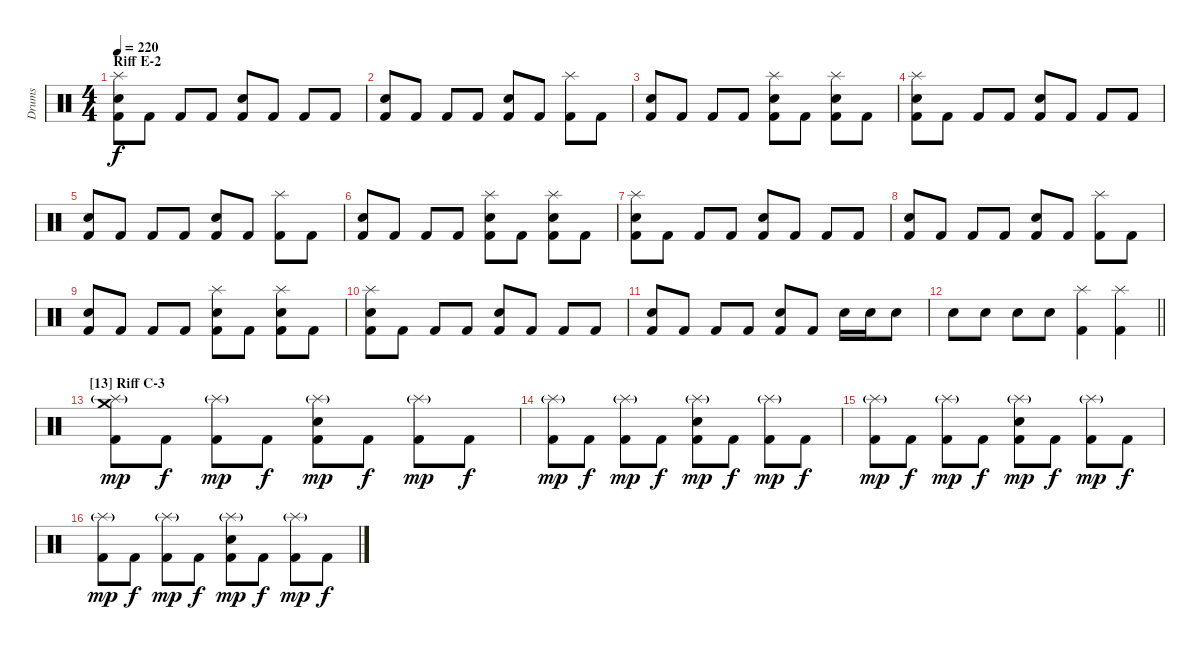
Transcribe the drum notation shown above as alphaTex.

\track ("Drums" "Drums") {instrument percussion}
\staff {score}
\articulation defaults
\ts (4 4)
\section ("" "Riff E-2")
\tempo 220
\clef neutral
\ks c
("Splash (hit)" "Electric Snare (hit)" "Kick (hit) 2").8{dy f} "Kick (hit) 2".8 "Kick (hit) 2".8 "Kick (hit) 2".8 ("Electric Snare (hit)" "Kick (hit) 2").8 "Kick (hit) 2".8 "Kick (hit) 2".8 "Kick (hit) 2".8 |
("Electric Snare (hit)" "Kick (hit) 2").8 "Kick (hit) 2".8 "Kick (hit) 2".8 "Kick (hit) 2".8 ("Electric Snare (hit)" "Kick (hit) 2").8 "Kick (hit) 2".8 ("Splash (hit)" "Kick (hit) 2").8 "Kick (hit) 2".8 |
("Electric Snare (hit)" "Kick (hit) 2").8 "Kick (hit) 2".8 "Kick (hit) 2".8 "Kick (hit) 2".8 ("Splash (hit)" "Electric Snare (hit)" "Kick (hit) 2").8 "Kick (hit) 2".8 ("Splash (hit)" "Electric Snare (hit)" "Kick (hit) 2").8 "Kick (hit) 2".8 |
("Splash (hit)" "Electric Snare (hit)" "Kick (hit) 2").8 "Kick (hit) 2".8 "Kick (hit) 2".8 "Kick (hit) 2".8 ("Electric Snare (hit)" "Kick (hit) 2").8 "Kick (hit) 2".8 "Kick (hit) 2".8 "Kick (hit) 2".8 |
("Electric Snare (hit)" "Kick (hit) 2").8 "Kick (hit) 2".8 "Kick (hit) 2".8 "Kick (hit) 2".8 ("Electric Snare (hit)" "Kick (hit) 2").8 "Kick (hit) 2".8 ("Splash (hit)" "Kick (hit) 2").8 "Kick (hit) 2".8 |
("Electric Snare (hit)" "Kick (hit) 2").8 "Kick (hit) 2".8 "Kick (hit) 2".8 "Kick (hit) 2".8 ("Splash (hit)" "Electric Snare (hit)" "Kick (hit) 2").8 "Kick (hit) 2".8 ("Splash (hit)" "Electric Snare (hit)" "Kick (hit) 2").8 "Kick (hit) 2".8 |
("Splash (hit)" "Electric Snare (hit)" "Kick (hit) 2").8 "Kick (hit) 2".8 "Kick (hit) 2".8 "Kick (hit) 2".8 ("Electric Snare (hit)" "Kick (hit) 2").8 "Kick (hit) 2".8 "Kick (hit) 2".8 "Kick (hit) 2".8 |
("Electric Snare (hit)" "Kick (hit) 2").8 "Kick (hit) 2".8 "Kick (hit) 2".8 "Kick (hit) 2".8 ("Electric Snare (hit)" "Kick (hit) 2").8 "Kick (hit) 2".8 ("Splash (hit)" "Kick (hit) 2").8 "Kick (hit) 2".8 |
("Electric Snare (hit)" "Kick (hit) 2").8 "Kick (hit) 2".8 "Kick (hit) 2".8 "Kick (hit) 2".8 ("Splash (hit)" "Electric Snare (hit)" "Kick (hit) 2").8 "Kick (hit) 2".8 ("Splash (hit)" "Electric Snare (hit)" "Kick (hit) 2").8 "Kick (hit) 2".8 |
("Splash (hit)" "Electric Snare (hit)" "Kick (hit) 2").8 "Kick (hit) 2".8 "Kick (hit) 2".8 "Kick (hit) 2".8 ("Electric Snare (hit)" "Kick (hit) 2").8 "Kick (hit) 2".8 "Kick (hit) 2".8 "Kick (hit) 2".8 |
("Electric Snare (hit)" "Kick (hit) 2").8 "Kick (hit) 2".8 "Kick (hit) 2".8 "Kick (hit) 2".8 ("Electric Snare (hit)" "Kick (hit) 2").8 "Kick (hit) 2".8 "Electric Snare (hit)".16 "Electric Snare (hit)".16 "Electric Snare (hit)".8 |
\barLineRight lightlight "Electric Snare (hit)".8 "Electric Snare (hit)".8 "Electric Snare (hit)".8 "Electric Snare (hit)".8
("Splash (hit)" "Kick (hit) 2").4 ("Splash (hit)" "Kick (hit) 2").4 |
\section ("" "[13] Riff C-3")
("Crash medium (hit)" "Splash (hit)"{g} "Kick (hit) 2").8{dy mp} "Kick (hit) 2".8{dy f} ("Splash (hit)"{g} "Kick (hit) 2").8{dy mp} "Kick (hit) 2".8{dy f} ("Splash (hit)"{g} "Electric Snare (hit)" "Kick (hit) 2").8{dy mp} "Kick (hit) 2".8{dy f} ("Splash (hit)"{g} "Kick (hit) 2").8{dy mp} "Kick (hit) 2".8{dy f} |
("Splash (hit)"{g} "Kick (hit) 2").8{dy mp} "Kick (hit) 2".8{dy f} ("Splash (hit)"{g} "Kick (hit) 2").8{dy mp} "Kick (hit) 2".8{dy f} ("Splash (hit)"{g} "Electric Snare (hit)" "Kick (hit) 2").8{dy mp} "Kick (hit) 2".8{dy f} ("Splash (hit)"{g} "Kick (hit) 2").8{dy mp} "Kick (hit) 2".8{dy f} |
("Splash (hit)"{g} "Kick (hit) 2").8{dy mp} "Kick (hit) 2".8{dy f} ("Splash (hit)"{g} "Kick (hit) 2").8{dy mp} "Kick (hit) 2".8{dy f} ("Splash (hit)"{g} "Electric Snare (hit)" "Kick (hit) 2").8{dy mp} "Kick (hit) 2".8{dy f} ("Splash (hit)"{g} "Kick (hit) 2").8{dy mp} "Kick (hit) 2".8{dy f} |
("Splash (hit)"{g} "Kick (hit) 2").8{dy mp} "Kick (hit) 2".8{dy f} ("Splash (hit)"{g} "Kick (hit) 2").8{dy mp} "Kick (hit) 2".8{dy f} ("Splash (hit)"{g} "Electric Snare (hit)" "Kick (hit) 2").8{dy mp} "Kick (hit) 2".8{dy f} ("Splash (hit)"{g} "Kick (hit) 2").8{dy mp} "Kick (hit) 2".8{dy f}
